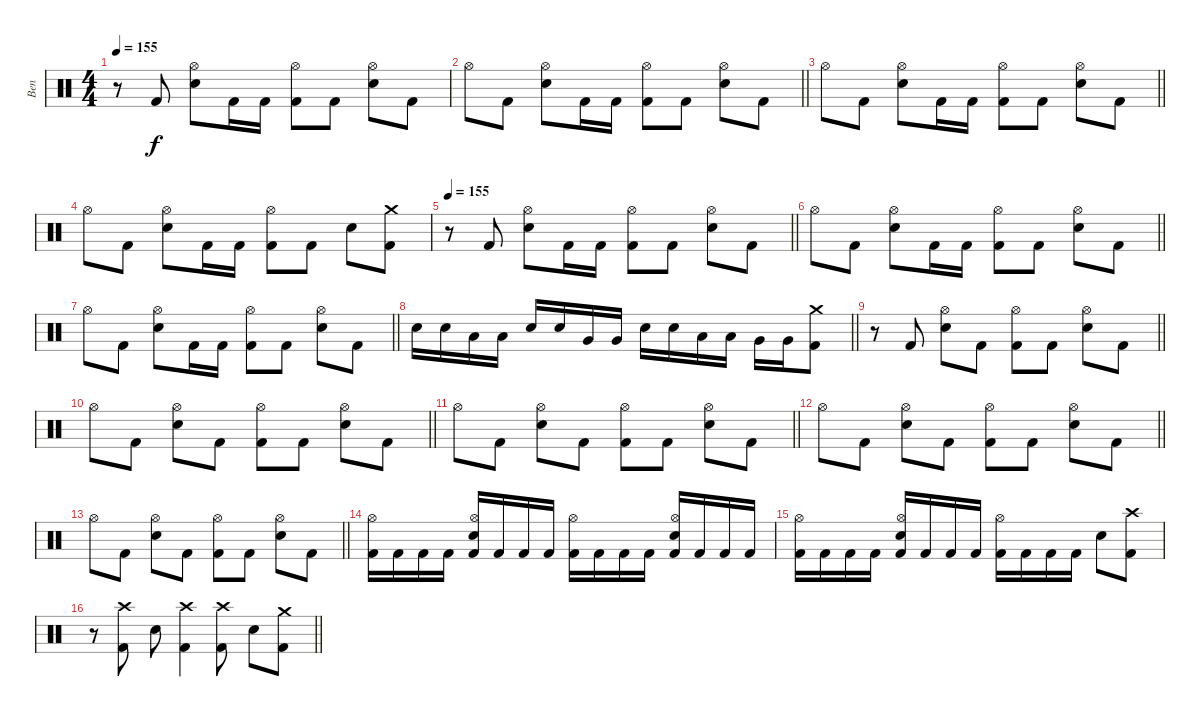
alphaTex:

\track ("Ben" "Ben") {instrument percussion}
\staff {score}
\articulation defaults
\ts (4 4)
\tempo 155
\clef neutral
\ks c
r.8{dy f} "Kick (hit) 2".8 ("Hi-Hat (open)" "Electric Snare (hit)").8 "Kick (hit) 2".16 "Kick (hit) 2".16 ("Hi-Hat (open)" "Kick (hit) 2").8 "Kick (hit) 2".8 ("Hi-Hat (open)" "Electric Snare (hit)").8 "Kick (hit) 2".8 |
\barLineRight lightlight "Hi-Hat (open)".8 "Kick (hit) 2".8
("Hi-Hat (open)" "Electric Snare (hit)").8 "Kick (hit) 2".16 "Kick (hit) 2".16 ("Hi-Hat (open)" "Kick (hit) 2").8 "Kick (hit) 2".8 ("Hi-Hat (open)" "Electric Snare (hit)").8 "Kick (hit) 2".8 |
\barLineRight lightlight "Hi-Hat (open)".8 "Kick (hit) 2".8
("Hi-Hat (open)" "Electric Snare (hit)").8 "Kick (hit) 2".16 "Kick (hit) 2".16 ("Hi-Hat (open)" "Kick (hit) 2").8 "Kick (hit) 2".8 ("Hi-Hat (open)" "Electric Snare (hit)").8 "Kick (hit) 2".8 |
"Hi-Hat (open)".8 "Kick (hit) 2".8 ("Hi-Hat (open)" "Electric Snare (hit)").8 "Kick (hit) 2".16 "Kick (hit) 2".16 ("Hi-Hat (open)" "Kick (hit) 2").8 "Kick (hit) 2".8 "Electric Snare (hit)".8 ("Crash medium (hit)" "Kick (hit) 2").8 |
\tempo 155
\barLineRight lightlight
r.8 "Kick (hit) 2".8 ("Hi-Hat (open)" "Electric Snare (hit)").8 "Kick (hit) 2".16 "Kick (hit) 2".16 ("Hi-Hat (open)" "Kick (hit) 2").8 "Kick (hit) 2".8 ("Hi-Hat (open)" "Electric Snare (hit)").8 "Kick (hit) 2".8 |
\barLineRight lightlight "Hi-Hat (open)".8 "Kick (hit) 2".8
("Hi-Hat (open)" "Electric Snare (hit)").8 "Kick (hit) 2".16 "Kick (hit) 2".16 ("Hi-Hat (open)" "Kick (hit) 2").8 "Kick (hit) 2".8 ("Hi-Hat (open)" "Electric Snare (hit)").8 "Kick (hit) 2".8 |
\barLineRight lightlight "Hi-Hat (open)".8 "Kick (hit) 2".8
("Hi-Hat (open)" "Electric Snare (hit)").8 "Kick (hit) 2".16 "Kick (hit) 2".16 ("Hi-Hat (open)" "Kick (hit) 2").8 "Kick (hit) 2".8 ("Hi-Hat (open)" "Electric Snare (hit)").8 "Kick (hit) 2".8 |
\barLineRight lightlight "Electric Snare (hit)".16 "Electric Snare (hit)".16 "Low Tom (hit)".16 "Low Tom (hit)".16 "Electric Snare (hit)".16 "Electric Snare (hit)".16 "Very Low Tom (hit)".16 "Very Low Tom (hit)".16 "Electric Snare (hit)".16 "Electric Snare (hit)".16 "Low Tom (hit)".16 "Low Tom (hit)".16 "Very Low Tom (hit)".16 "Very Low Tom (hit)".16
("Crash medium (hit)" "Kick (hit) 2").8 |
\barLineRight lightlight
r.8 "Kick (hit) 2".8 ("Hi-Hat (open)" "Electric Snare (hit)").8 "Kick (hit) 2".8 ("Hi-Hat (open)" "Kick (hit) 2").8 "Kick (hit) 2".8 ("Hi-Hat (open)" "Electric Snare (hit)").8 "Kick (hit) 2".8 |
\barLineRight lightlight "Hi-Hat (open)".8 "Kick (hit) 2".8
("Hi-Hat (open)" "Electric Snare (hit)").8 "Kick (hit) 2".8 ("Hi-Hat (open)" "Kick (hit) 2").8 "Kick (hit) 2".8 ("Hi-Hat (open)" "Electric Snare (hit)").8 "Kick (hit) 2".8 |
\barLineRight lightlight "Hi-Hat (open)".8 "Kick (hit) 2".8
("Hi-Hat (open)" "Electric Snare (hit)").8 "Kick (hit) 2".8 ("Hi-Hat (open)" "Kick (hit) 2").8 "Kick (hit) 2".8 ("Hi-Hat (open)" "Electric Snare (hit)").8 "Kick (hit) 2".8 |
\barLineRight lightlight "Hi-Hat (open)".8 "Kick (hit) 2".8
("Hi-Hat (open)" "Electric Snare (hit)").8 "Kick (hit) 2".8 ("Hi-Hat (open)" "Kick (hit) 2").8 "Kick (hit) 2".8 ("Hi-Hat (open)" "Electric Snare (hit)").8 "Kick (hit) 2".8 |
\barLineRight lightlight "Hi-Hat (open)".8 "Kick (hit) 2".8
("Hi-Hat (open)" "Electric Snare (hit)").8 "Kick (hit) 2".8 ("Hi-Hat (open)" "Kick (hit) 2").8 "Kick (hit) 2".8 ("Hi-Hat (open)" "Electric Snare (hit)").8 "Kick (hit) 2".8 |
("Hi-Hat (open)" "Kick (hit) 2").16 "Kick (hit) 2".16 "Kick (hit) 2".16 "Kick (hit) 2".16 ("Hi-Hat (open)" "Electric Snare (hit)" "Kick (hit) 2").16 "Kick (hit) 2".16 "Kick (hit) 2".16 "Kick (hit) 2".16 ("Hi-Hat (open)" "Kick (hit) 2").16 "Kick (hit) 2".16 "Kick (hit) 2".16 "Kick (hit) 2".16 ("Hi-Hat (open)" "Electric Snare (hit)" "Kick (hit) 2").16 "Kick (hit) 2".16 "Kick (hit) 2".16 "Kick (hit) 2".16 |
("Hi-Hat (open)" "Kick (hit) 2").16 "Kick (hit) 2".16 "Kick (hit) 2".16 "Kick (hit) 2".16 ("Hi-Hat (open)" "Electric Snare (hit)" "Kick (hit) 2").16 "Kick (hit) 2".16 "Kick (hit) 2".16 "Kick (hit) 2".16 ("Hi-Hat (open)" "Kick (hit) 2").16 "Kick (hit) 2".16 "Kick (hit) 2".16 "Kick (hit) 2".16 "Electric Snare (hit)".8 ("Crash high (hit)" "Kick (hit) 2").8 |
\barLineRight lightlight
r.8 ("Crash high (hit)" "Kick (hit) 2").8 "Electric Snare (hit)".8 ("Crash high (hit)" "Kick (hit) 2").4 ("Crash high (hit)" "Kick (hit) 2").8 "Electric Snare (hit)".8 ("Crash medium (hit)" "Kick (hit) 2").8
